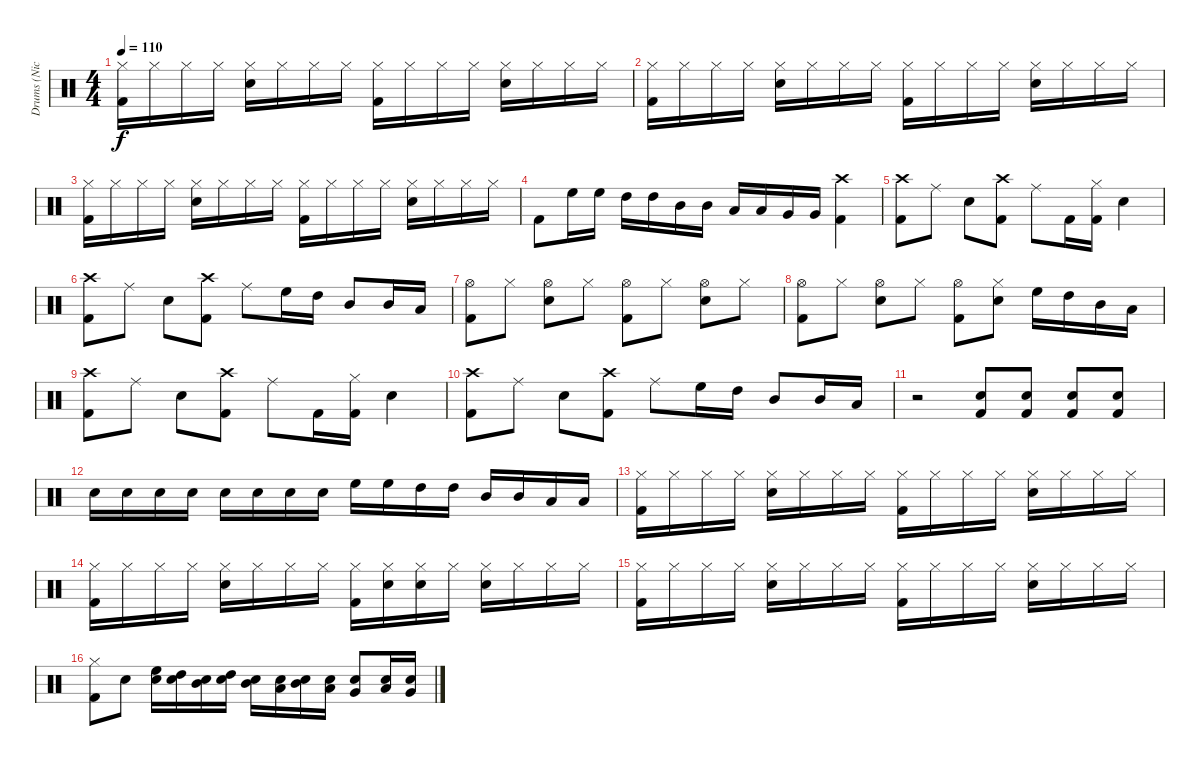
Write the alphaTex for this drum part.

\track ("Drums (Nicko)" "Drums (Nic") {instrument percussion}
\staff {score}
\articulation defaults
\ts (4 4)
\tempo 110
\clef neutral
\ks c
("Hi-Hat (closed)" "Kick (hit) 2").16{dy f} "Hi-Hat (closed)".16 "Hi-Hat (closed)".16 "Hi-Hat (closed)".16 ("Hi-Hat (closed)" "Snare (hit) 2").16 "Hi-Hat (closed)".16 "Hi-Hat (closed)".16 "Hi-Hat (closed)".16 ("Hi-Hat (closed)" "Kick (hit) 2").16 "Hi-Hat (closed)".16 "Hi-Hat (closed)".16 "Hi-Hat (closed)".16 ("Hi-Hat (closed)" "Snare (hit) 2").16 "Hi-Hat (closed)".16 "Hi-Hat (closed)".16 "Hi-Hat (closed)".16 |
("Hi-Hat (closed)" "Kick (hit) 2").16 "Hi-Hat (closed)".16 "Hi-Hat (closed)".16 "Hi-Hat (closed)".16 ("Hi-Hat (closed)" "Snare (hit) 2").16 "Hi-Hat (closed)".16 "Hi-Hat (closed)".16 "Hi-Hat (closed)".16 ("Hi-Hat (closed)" "Kick (hit) 2").16 "Hi-Hat (closed)".16 "Hi-Hat (closed)".16 "Hi-Hat (closed)".16 ("Hi-Hat (closed)" "Snare (hit) 2").16 "Hi-Hat (closed)".16 "Hi-Hat (closed)".16 "Hi-Hat (closed)".16 |
("Hi-Hat (closed)" "Kick (hit) 2").16 "Hi-Hat (closed)".16 "Hi-Hat (closed)".16 "Hi-Hat (closed)".16 ("Hi-Hat (closed)" "Snare (hit) 2").16 "Hi-Hat (closed)".16 "Hi-Hat (closed)".16 "Hi-Hat (closed)".16 ("Hi-Hat (closed)" "Kick (hit) 2").16 "Hi-Hat (closed)".16 "Hi-Hat (closed)".16 "Hi-Hat (closed)".16 ("Hi-Hat (closed)" "Snare (hit) 2").16 "Hi-Hat (closed)".16 "Hi-Hat (closed)".16 "Hi-Hat (closed)".16 |
"Kick (hit) 2".8 "High Floor Tom (hit)".16 "High Floor Tom (hit)".16 "High Tom (hit)".16 "High Tom (hit)".16 "Mid Tom (hit)".16 "Mid Tom (hit)".16 "Low Tom (hit)".16 "Low Tom (hit)".16 "Very Low Tom (hit)".16 "Very Low Tom (hit)".16 ("Crash high (hit)" "Kick (hit) 2").4 |
("Crash high (hit)" "Kick (hit) 2").8 "Ride (middle)".8 "Snare (hit) 2".8 ("Crash high (hit)" "Kick (hit) 2").8 "Ride (middle)".8 "Kick (hit) 2".16 ("Hi-Hat (closed)" "Kick (hit) 2").16 "Snare (hit) 2".4 |
("Crash high (hit)" "Kick (hit) 2").8 "Ride (middle)".8 "Snare (hit) 2".8 ("Crash high (hit)" "Kick (hit) 2").8 "Ride (middle)".8 "High Floor Tom (hit)".16 "High Tom (hit)".16 "Mid Tom (hit)".8 "Mid Tom (hit)".16 "Low Tom (hit)".16 |
("Hi-Hat (open)" "Kick (hit) 2").8 "Hi-Hat (closed)".8 ("Hi-Hat (open)" "Snare (hit) 2").8 "Hi-Hat (closed)".8 ("Hi-Hat (open)" "Kick (hit) 2").8 "Hi-Hat (closed)".8 ("Hi-Hat (open)" "Snare (hit) 2").8 "Hi-Hat (closed)".8 |
("Hi-Hat (open)" "Kick (hit) 2").8 "Hi-Hat (closed)".8 ("Hi-Hat (open)" "Snare (hit) 2").8 "Hi-Hat (closed)".8 ("Hi-Hat (open)" "Kick (hit) 2").8 ("Hi-Hat (closed)" "Snare (hit) 2").8 "High Floor Tom (hit)".16 "High Tom (hit)".16 "Mid Tom (hit)".16 "Low Tom (hit)".16 |
("Crash high (hit)" "Kick (hit) 2").8 "Ride (middle)".8 "Snare (hit) 2".8 ("Crash high (hit)" "Kick (hit) 2").8 "Ride (middle)".8 "Kick (hit) 2".16 ("Hi-Hat (closed)" "Kick (hit) 2").16 "Snare (hit) 2".4 |
("Crash high (hit)" "Kick (hit) 2").8 "Ride (middle)".8 "Snare (hit) 2".8 ("Crash high (hit)" "Kick (hit) 2").8 "Ride (middle)".8 "High Floor Tom (hit)".16 "High Tom (hit)".16 "Mid Tom (hit)".8 "Mid Tom (hit)".16 "Low Tom (hit)".16 |
r.2 ("Kick (hit) 2" "Snare (hit) 2").8 ("Kick (hit) 2" "Snare (hit) 2").8 ("Kick (hit) 2" "Snare (hit) 2").8 ("Kick (hit) 2" "Snare (hit) 2").8 |
"Snare (hit) 2".16 "Snare (hit) 2".16 "Snare (hit) 2".16 "Snare (hit) 2".16 "Snare (hit) 2".16 "Snare (hit) 2".16 "Snare (hit) 2".16 "Snare (hit) 2".16 "High Floor Tom (hit)".16 "High Floor Tom (hit)".16 "High Tom (hit)".16 "High Tom (hit)".16 "Mid Tom (hit)".16 "Mid Tom (hit)".16 "Low Tom (hit)".16 "Low Tom (hit)".16 |
("Hi-Hat (closed)" "Kick (hit) 2").16 "Hi-Hat (closed)".16 "Hi-Hat (closed)".16 "Hi-Hat (closed)".16 ("Hi-Hat (closed)" "Snare (hit) 2").16 "Hi-Hat (closed)".16 "Hi-Hat (closed)".16 "Hi-Hat (closed)".16 ("Hi-Hat (closed)" "Kick (hit) 2").16 "Hi-Hat (closed)".16 "Hi-Hat (closed)".16 "Hi-Hat (closed)".16 ("Hi-Hat (closed)" "Snare (hit) 2").16 "Hi-Hat (closed)".16 "Hi-Hat (closed)".16 "Hi-Hat (closed)".16 |
("Hi-Hat (closed)" "Kick (hit) 2").16 "Hi-Hat (closed)".16 "Hi-Hat (closed)".16 "Hi-Hat (closed)".16 ("Hi-Hat (closed)" "Snare (hit) 2").16 "Hi-Hat (closed)".16 "Hi-Hat (closed)".16 "Hi-Hat (closed)".16 ("Hi-Hat (closed)" "Kick (hit) 2").16 ("Hi-Hat (closed)" "Snare (hit) 2").16 ("Hi-Hat (closed)" "Snare (hit) 2").16 "Hi-Hat (closed)".16 ("Hi-Hat (closed)" "Snare (hit) 2").16 "Hi-Hat (closed)".16 "Hi-Hat (closed)".16 "Hi-Hat (closed)".16 |
("Hi-Hat (closed)" "Kick (hit) 2").16 "Hi-Hat (closed)".16 "Hi-Hat (closed)".16 "Hi-Hat (closed)".16 ("Hi-Hat (closed)" "Snare (hit) 2").16 "Hi-Hat (closed)".16 "Hi-Hat (closed)".16 "Hi-Hat (closed)".16 ("Hi-Hat (closed)" "Kick (hit) 2").16 "Hi-Hat (closed)".16 "Hi-Hat (closed)".16 "Hi-Hat (closed)".16 ("Hi-Hat (closed)" "Snare (hit) 2").16 "Hi-Hat (closed)".16 "Hi-Hat (closed)".16 "Hi-Hat (closed)".16 |
("Hi-Hat (closed)" "Kick (hit) 2").8 "Snare (hit) 2".8 ("Snare (hit) 2" "High Floor Tom (hit)").16 ("Snare (hit) 2" "High Tom (hit)").16 ("Snare (hit) 2" "Mid Tom (hit)").16 ("Snare (hit) 2" "High Tom (hit)").16 ("Snare (hit) 2" "Mid Tom (hit)").16 ("Snare (hit) 2" "Low Tom (hit)").16 ("Snare (hit) 2" "Mid Tom (hit)").16 ("Snare (hit) 2" "Low Tom (hit)").16 ("Snare (hit) 2" "Very Low Tom (hit)").8 ("Snare (hit) 2" "Low Tom (hit)").16 ("Snare (hit) 2" "Very Low Tom (hit)").16
